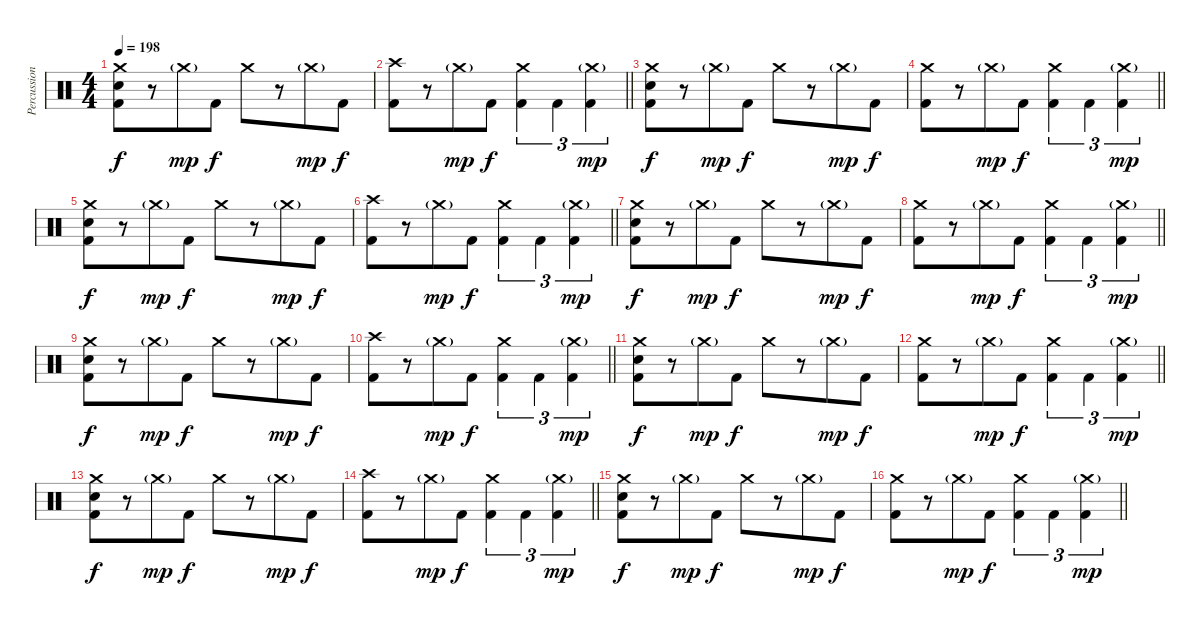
\track ("Percussion" "Percussion") {instrument percussion}
\staff {score}
\articulation defaults
\ts (4 4)
\tempo 198
\clef neutral
\ks c
("Crash medium (hit)" "Electric Snare (hit)" "Kick (hit) 2").8{dy f beam merge} r.8 "Crash medium (hit)"{g}.8{dy mp} "Kick (hit) 2".8{dy f} "Crash medium (hit)".8{beam merge} r.8{beam merge} "Crash medium (hit)"{g}.8{dy mp} "Kick (hit) 2".8{dy f} |
\barLineRight lightlight
("Crash high (hit)" "Kick (hit) 2").8{beam merge} r.8 "Crash medium (hit)"{g}.8{dy mp} "Kick (hit) 2".8{dy f} ("Crash medium (hit)" "Kick (hit) 2").4{tu (3 2) beam merge} "Kick (hit) 2".4{tu (3 2) beam merge} ("Crash medium (hit)"{g} "Kick (hit) 2").4{tu (3 2) dy mp} |
("Crash medium (hit)" "Electric Snare (hit)" "Kick (hit) 2").8{dy f beam merge} r.8 "Crash medium (hit)"{g}.8{dy mp} "Kick (hit) 2".8{dy f} "Crash medium (hit)".8{beam merge} r.8{beam merge} "Crash medium (hit)"{g}.8{dy mp} "Kick (hit) 2".8{dy f} |
\barLineRight lightlight
("Crash medium (hit)" "Kick (hit) 2").8{beam merge} r.8 "Crash medium (hit)"{g}.8{dy mp} "Kick (hit) 2".8{dy f} ("Crash medium (hit)" "Kick (hit) 2").4{tu (3 2) beam merge} "Kick (hit) 2".4{tu (3 2) beam merge} ("Crash medium (hit)"{g} "Kick (hit) 2").4{tu (3 2) dy mp} |
("Crash medium (hit)" "Electric Snare (hit)" "Kick (hit) 2").8{dy f beam merge} r.8 "Crash medium (hit)"{g}.8{dy mp} "Kick (hit) 2".8{dy f} "Crash medium (hit)".8{beam merge} r.8{beam merge} "Crash medium (hit)"{g}.8{dy mp} "Kick (hit) 2".8{dy f} |
\barLineRight lightlight
("Crash high (hit)" "Kick (hit) 2").8{beam merge} r.8 "Crash medium (hit)"{g}.8{dy mp} "Kick (hit) 2".8{dy f} ("Crash medium (hit)" "Kick (hit) 2").4{tu (3 2) beam merge} "Kick (hit) 2".4{tu (3 2) beam merge} ("Crash medium (hit)"{g} "Kick (hit) 2").4{tu (3 2) dy mp} |
("Crash medium (hit)" "Electric Snare (hit)" "Kick (hit) 2").8{dy f beam merge} r.8 "Crash medium (hit)"{g}.8{dy mp} "Kick (hit) 2".8{dy f} "Crash medium (hit)".8{beam merge} r.8{beam merge} "Crash medium (hit)"{g}.8{dy mp} "Kick (hit) 2".8{dy f} |
\barLineRight lightlight
("Crash medium (hit)" "Kick (hit) 2").8{beam merge} r.8 "Crash medium (hit)"{g}.8{dy mp} "Kick (hit) 2".8{dy f} ("Crash medium (hit)" "Kick (hit) 2").4{tu (3 2) beam merge} "Kick (hit) 2".4{tu (3 2) beam merge} ("Crash medium (hit)"{g} "Kick (hit) 2").4{tu (3 2) dy mp} |
("Crash medium (hit)" "Electric Snare (hit)" "Kick (hit) 2").8{dy f beam merge} r.8 "Crash medium (hit)"{g}.8{dy mp} "Kick (hit) 2".8{dy f} "Crash medium (hit)".8{beam merge} r.8{beam merge} "Crash medium (hit)"{g}.8{dy mp} "Kick (hit) 2".8{dy f} |
\barLineRight lightlight
("Crash high (hit)" "Kick (hit) 2").8{beam merge} r.8 "Crash medium (hit)"{g}.8{dy mp} "Kick (hit) 2".8{dy f} ("Crash medium (hit)" "Kick (hit) 2").4{tu (3 2) beam merge} "Kick (hit) 2".4{tu (3 2) beam merge} ("Crash medium (hit)"{g} "Kick (hit) 2").4{tu (3 2) dy mp} |
("Crash medium (hit)" "Electric Snare (hit)" "Kick (hit) 2").8{dy f beam merge} r.8 "Crash medium (hit)"{g}.8{dy mp} "Kick (hit) 2".8{dy f} "Crash medium (hit)".8{beam merge} r.8{beam merge} "Crash medium (hit)"{g}.8{dy mp} "Kick (hit) 2".8{dy f} |
\barLineRight lightlight
("Crash medium (hit)" "Kick (hit) 2").8{beam merge} r.8 "Crash medium (hit)"{g}.8{dy mp} "Kick (hit) 2".8{dy f} ("Crash medium (hit)" "Kick (hit) 2").4{tu (3 2) beam merge} "Kick (hit) 2".4{tu (3 2) beam merge} ("Crash medium (hit)"{g} "Kick (hit) 2").4{tu (3 2) dy mp} |
("Crash medium (hit)" "Electric Snare (hit)" "Kick (hit) 2").8{dy f beam merge} r.8 "Crash medium (hit)"{g}.8{dy mp} "Kick (hit) 2".8{dy f} "Crash medium (hit)".8{beam merge} r.8{beam merge} "Crash medium (hit)"{g}.8{dy mp} "Kick (hit) 2".8{dy f} |
\barLineRight lightlight
("Crash high (hit)" "Kick (hit) 2").8{beam merge} r.8 "Crash medium (hit)"{g}.8{dy mp} "Kick (hit) 2".8{dy f} ("Crash medium (hit)" "Kick (hit) 2").4{tu (3 2) beam merge} "Kick (hit) 2".4{tu (3 2) beam merge} ("Crash medium (hit)"{g} "Kick (hit) 2").4{tu (3 2) dy mp} |
("Crash medium (hit)" "Electric Snare (hit)" "Kick (hit) 2").8{dy f beam merge} r.8 "Crash medium (hit)"{g}.8{dy mp} "Kick (hit) 2".8{dy f} "Crash medium (hit)".8{beam merge} r.8{beam merge} "Crash medium (hit)"{g}.8{dy mp} "Kick (hit) 2".8{dy f} |
\barLineRight lightlight
("Crash medium (hit)" "Kick (hit) 2").8{beam merge} r.8 "Crash medium (hit)"{g}.8{dy mp} "Kick (hit) 2".8{dy f} ("Crash medium (hit)" "Kick (hit) 2").4{tu (3 2) beam merge} "Kick (hit) 2".4{tu (3 2) beam merge} ("Crash medium (hit)"{g} "Kick (hit) 2").4{tu (3 2) dy mp}
